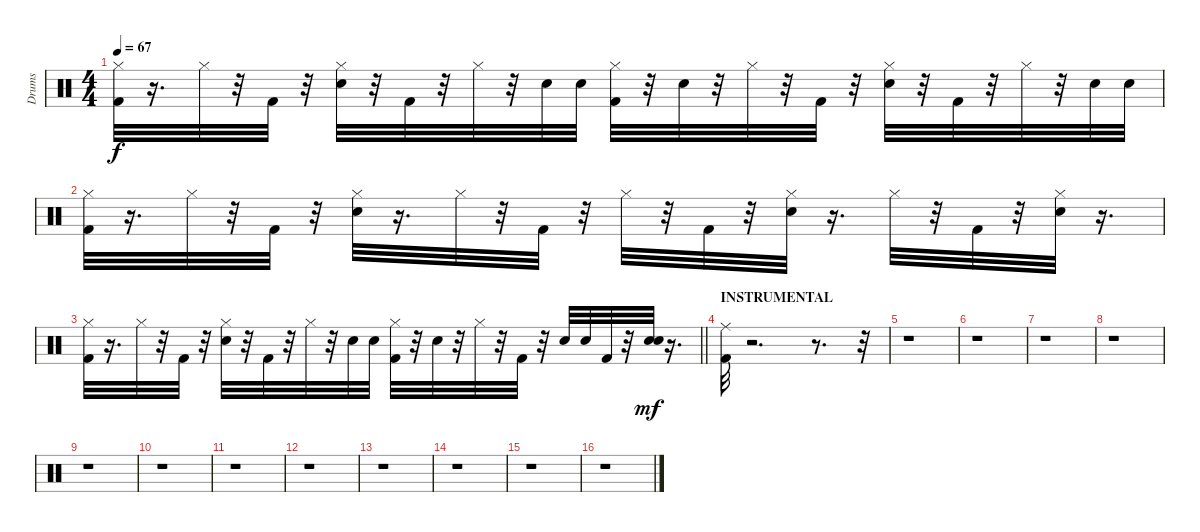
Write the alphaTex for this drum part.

\track ("Drums" "Drums") {instrument percussion}
\staff {score}
\articulation defaults
\ts (4 4)
\tempo 67
\clef neutral
\ks c
("Kick (hit) 2" "Hi-Hat (closed)").32{dy f} r.16{d} "Hi-Hat (closed)".32 r.32 "Kick (hit) 2".32 r.32 ("Snare (hit) 2" "Hi-Hat (closed)").32 r.32 "Kick (hit) 2".32 r.32 "Hi-Hat (closed)".32 r.32 "Snare (hit) 2".32 "Snare (hit) 2".32 ("Kick (hit) 2" "Hi-Hat (closed)").32 r.32 "Snare (hit) 2".32 r.32 "Hi-Hat (closed)".32 r.32 "Kick (hit) 2".32 r.32 ("Snare (hit) 2" "Hi-Hat (closed)").32 r.32 "Kick (hit) 2".32 r.32 "Hi-Hat (closed)".32 r.32 "Snare (hit) 2".32 "Snare (hit) 2".32 |
("Kick (hit) 2" "Hi-Hat (closed)").32 r.16{d} "Hi-Hat (closed)".32 r.32 "Kick (hit) 2".32 r.32 ("Snare (hit) 2" "Hi-Hat (closed)").32 r.16{d} "Hi-Hat (closed)".32 r.32 "Kick (hit) 2".32 r.32 "Hi-Hat (closed)".32 r.32 "Kick (hit) 2".32 r.32 ("Snare (hit) 2" "Hi-Hat (closed)").32 r.16{d} "Hi-Hat (closed)".32 r.32 "Kick (hit) 2".32 r.32 ("Snare (hit) 2" "Hi-Hat (closed)").32 r.16{d} |
\barLineRight lightlight
("Kick (hit) 2" "Hi-Hat (closed)").32 r.16{d} "Hi-Hat (closed)".32 r.32 "Kick (hit) 2".32 r.32 ("Snare (hit) 2" "Hi-Hat (closed)").32 r.32 "Kick (hit) 2".32 r.32 "Hi-Hat (closed)".32 r.32 "Snare (hit) 2".32 "Snare (hit) 2".32 ("Kick (hit) 2" "Hi-Hat (closed)").32 r.32 "Snare (hit) 2".32 r.32 "Hi-Hat (closed)".32 r.32 "Kick (hit) 2".32 r.32 "Snare (hit) 2".32 "Snare (hit) 2".32 "Kick (hit) 2".32 r.32 ("Electric Snare (hit)" "Snare (hit) 2").32{dy mf} r.16{d} |
\section ("" "INSTRUMENTAL")
("Ride (middle)" "Kick (hit) 2").32 r.2{d} r.8{d} r.32 |
r.1 |
r.1 |
r.1 |
r.1 |
r.1 |
r.1 |
r.1 |
r.1 |
r.1 |
r.1 |
r.1 |
r.1
